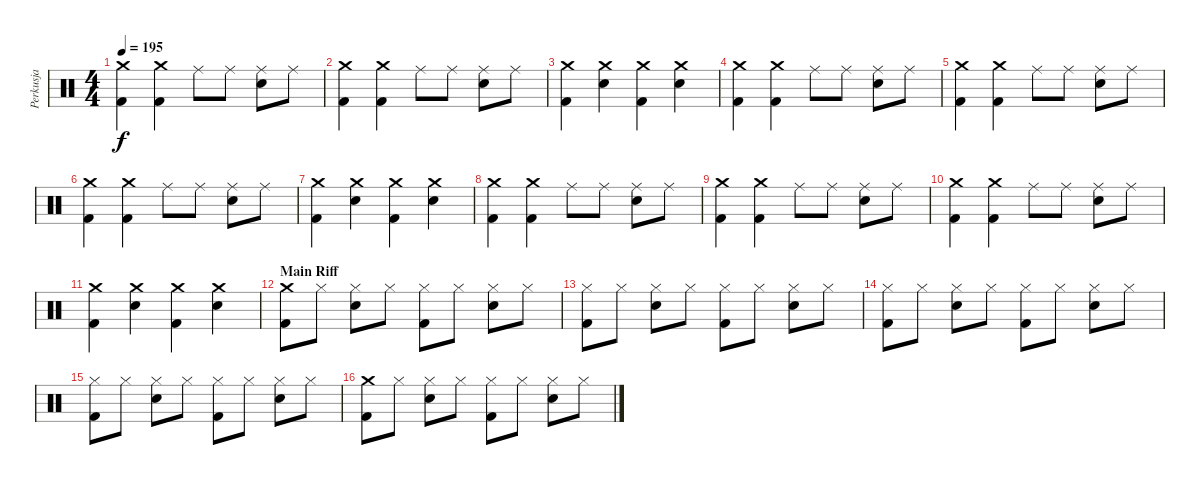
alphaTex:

\track ("Perkusja" "Perkusja") {instrument percussion}
\staff {score}
\articulation defaults
\ts (4 4)
\tempo 195
\clef neutral
\ks c
("Crash medium (hit)" "Kick (hit) 2").4{dy f} ("Crash medium (hit)" "Kick (hit) 2").4 "Ride (middle)".8 "Ride (middle)".8 ("Ride (middle)" "Snare (hit) 2").8 "Ride (middle)".8 |
("Crash medium (hit)" "Kick (hit) 2").4 ("Crash medium (hit)" "Kick (hit) 2").4 "Ride (middle)".8 "Ride (middle)".8 ("Ride (middle)" "Snare (hit) 2").8 "Ride (middle)".8 |
("Crash medium (hit)" "Kick (hit) 2").4 ("Crash medium (hit)" "Snare (hit) 2").4 ("Crash medium (hit)" "Kick (hit) 2").4 ("Crash medium (hit)" "Snare (hit) 2").4 |
("Crash medium (hit)" "Kick (hit) 2").4 ("Crash medium (hit)" "Kick (hit) 2").4 "Ride (middle)".8 "Ride (middle)".8 ("Ride (middle)" "Snare (hit) 2").8 "Ride (middle)".8 |
("Crash medium (hit)" "Kick (hit) 2").4 ("Crash medium (hit)" "Kick (hit) 2").4 "Ride (middle)".8 "Ride (middle)".8 ("Ride (middle)" "Snare (hit) 2").8 "Ride (middle)".8 |
("Crash medium (hit)" "Kick (hit) 2").4 ("Crash medium (hit)" "Kick (hit) 2").4 "Ride (middle)".8 "Ride (middle)".8 ("Ride (middle)" "Snare (hit) 2").8 "Ride (middle)".8 |
("Crash medium (hit)" "Kick (hit) 2").4 ("Crash medium (hit)" "Snare (hit) 2").4 ("Crash medium (hit)" "Kick (hit) 2").4 ("Crash medium (hit)" "Snare (hit) 2").4 |
("Crash medium (hit)" "Kick (hit) 2").4 ("Crash medium (hit)" "Kick (hit) 2").4 "Ride (middle)".8 "Ride (middle)".8 ("Ride (middle)" "Snare (hit) 2").8 "Ride (middle)".8 |
("Crash medium (hit)" "Kick (hit) 2").4 ("Crash medium (hit)" "Kick (hit) 2").4 "Ride (middle)".8 "Ride (middle)".8 ("Ride (middle)" "Snare (hit) 2").8 "Ride (middle)".8 |
("Crash medium (hit)" "Kick (hit) 2").4 ("Crash medium (hit)" "Kick (hit) 2").4 "Ride (middle)".8 "Ride (middle)".8 ("Ride (middle)" "Snare (hit) 2").8 "Ride (middle)".8 |
("Crash medium (hit)" "Kick (hit) 2").4 ("Crash medium (hit)" "Snare (hit) 2").4 ("Crash medium (hit)" "Kick (hit) 2").4 ("Crash medium (hit)" "Snare (hit) 2").4 |
\section ("" "Main Riff")
("Crash medium (hit)" "Kick (hit) 2").8 "Hi-Hat (closed)".8 ("Hi-Hat (closed)" "Snare (hit) 2").8 "Hi-Hat (closed)".8 ("Hi-Hat (closed)" "Kick (hit) 2").8 "Hi-Hat (closed)".8 ("Hi-Hat (closed)" "Snare (hit) 2").8 "Hi-Hat (closed)".8 |
("Hi-Hat (closed)" "Kick (hit) 2").8 "Hi-Hat (closed)".8 ("Hi-Hat (closed)" "Snare (hit) 2").8 "Hi-Hat (closed)".8 ("Hi-Hat (closed)" "Kick (hit) 2").8 "Hi-Hat (closed)".8 ("Hi-Hat (closed)" "Snare (hit) 2").8 "Hi-Hat (closed)".8 |
("Hi-Hat (closed)" "Kick (hit) 2").8 "Hi-Hat (closed)".8 ("Hi-Hat (closed)" "Snare (hit) 2").8 "Hi-Hat (closed)".8 ("Hi-Hat (closed)" "Kick (hit) 2").8 "Hi-Hat (closed)".8 ("Hi-Hat (closed)" "Snare (hit) 2").8 "Hi-Hat (closed)".8 |
("Hi-Hat (closed)" "Kick (hit) 2").8 "Hi-Hat (closed)".8 ("Hi-Hat (closed)" "Snare (hit) 2").8 "Hi-Hat (closed)".8 ("Hi-Hat (closed)" "Kick (hit) 2").8 "Hi-Hat (closed)".8 ("Hi-Hat (closed)" "Snare (hit) 2").8 "Hi-Hat (closed)".8 |
("Crash medium (hit)" "Kick (hit) 2").8 "Hi-Hat (closed)".8 ("Hi-Hat (closed)" "Snare (hit) 2").8 "Hi-Hat (closed)".8 ("Hi-Hat (closed)" "Kick (hit) 2").8 "Hi-Hat (closed)".8 ("Hi-Hat (closed)" "Snare (hit) 2").8 "Hi-Hat (closed)".8
